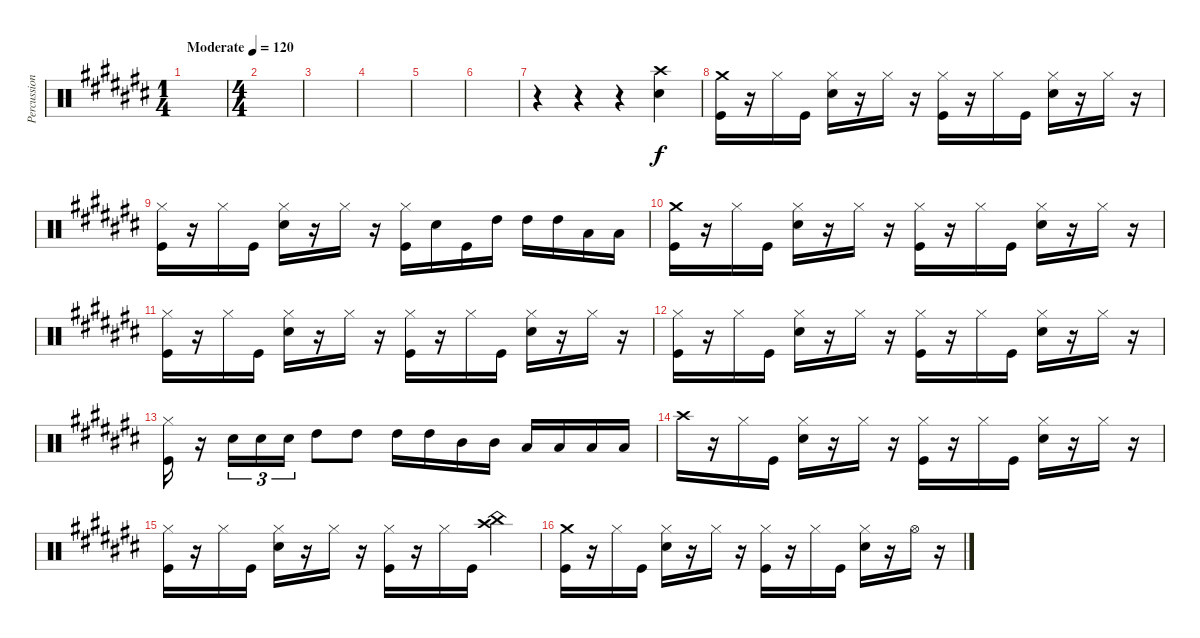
\track ("Percussion" "Percussion") {instrument percussion}
\staff {score}
\articulation defaults
\ts (1 4)
\tempo (120 "Moderate")
\clef neutral
\ks c#
|
\ts (4 4)
|
|
|
|
|
r.4 r.4 r.4 ("Crash high (hit)" "Electric Snare (hit)").4 |
("Crash medium (hit)" "Kick (hit)").16 r.16 "Hi-Hat (closed)".16 "Kick (hit)".16 ("Hi-Hat (closed)" "Snare (hit) 2").16 r.16 "Hi-Hat (closed)".16 r.16 ("Hi-Hat (closed)" "Kick (hit)").16 r.16 "Hi-Hat (closed)".16 "Kick (hit)".16 ("Hi-Hat (closed)" "Snare (hit) 2").16 r.16 "Hi-Hat (closed)".16 r.16 |
("Hi-Hat (closed)" "Kick (hit)").16 r.16 "Hi-Hat (closed)".16 "Kick (hit)".16 ("Hi-Hat (closed)" "Snare (hit) 2").16 r.16 "Hi-Hat (closed)".16 r.16 ("Hi-Hat (closed)" "Kick (hit)").16 "Snare (hit) 2".16 "Kick (hit)".16 "High Tom (hit)".16 "High Tom (hit)".16 "High Tom (hit)".16 "Low Tom (hit)".16 "Low Tom (hit)".16 |
("Crash medium (hit)" "Kick (hit)").16 r.16 "Hi-Hat (closed)".16 "Kick (hit)".16 ("Hi-Hat (closed)" "Snare (hit) 2").16 r.16 "Hi-Hat (closed)".16 r.16 ("Hi-Hat (closed)" "Kick (hit)").16 r.16 "Hi-Hat (closed)".16 "Kick (hit)".16 ("Hi-Hat (closed)" "Snare (hit) 2").16 r.16 "Hi-Hat (closed)".16 r.16 |
("Hi-Hat (closed)" "Kick (hit)").16 r.16 "Hi-Hat (closed)".16 "Kick (hit)".16 ("Hi-Hat (closed)" "Snare (hit) 2").16 r.16 "Hi-Hat (closed)".16 r.16 ("Hi-Hat (closed)" "Kick (hit)").16 r.16 "Hi-Hat (closed)".16 "Kick (hit)".16 ("Hi-Hat (closed)" "Snare (hit) 2").16 r.16 "Hi-Hat (closed)".16 r.16 |
("Hi-Hat (closed)" "Kick (hit)").16 r.16 "Hi-Hat (closed)".16 "Kick (hit)".16 ("Hi-Hat (closed)" "Snare (hit) 2").16 r.16 "Hi-Hat (closed)".16 r.16 ("Hi-Hat (closed)" "Kick (hit)").16 r.16 "Hi-Hat (closed)".16 "Kick (hit)".16 ("Hi-Hat (closed)" "Snare (hit) 2").16 r.16 "Hi-Hat (closed)".16 r.16 |
("Hi-Hat (closed)" "Kick (hit)").16 r.16 "Snare (hit) 2".16{tu (3 2)} "Snare (hit) 2".16{tu (3 2)} "Snare (hit) 2".16{tu (3 2)} "High Tom (hit)".8 "High Tom (hit)".8 "High Tom (hit)".16 "High Tom (hit)".16 "Mid Tom (hit)".16 "Mid Tom (hit)".16 "Low Tom (hit)".16 "Low Tom (hit)".16 "Low Floor Tom (hit)".16 "Low Floor Tom (hit)".16 |
"Crash high (hit)".16 r.16 "Hi-Hat (closed)".16 "Kick (hit)".16 ("Hi-Hat (closed)" "Snare (hit) 2").16 r.16 "Hi-Hat (closed)".16 r.16 ("Hi-Hat (closed)" "Kick (hit)").16 r.16 "Hi-Hat (closed)".16 "Kick (hit)".16 ("Hi-Hat (closed)" "Snare (hit) 2").16 r.16 "Hi-Hat (closed)".16 r.16 |
("Hi-Hat (closed)" "Kick (hit)").16 r.16 "Hi-Hat (closed)".16 "Kick (hit)".16 ("Hi-Hat (closed)" "Snare (hit) 2").16 r.16 "Hi-Hat (closed)".16 r.16 ("Hi-Hat (closed)" "Kick (hit)").16 r.16 "Hi-Hat (closed)".16 "Kick (hit)".16 ("Crash high (hit)" "China (hit)").4 |
("Crash medium (hit)" "Kick (hit)").16 r.16 "Hi-Hat (closed)".16 "Kick (hit)".16 ("Hi-Hat (closed)" "Snare (hit) 2").16 r.16 "Hi-Hat (closed)".16 r.16 ("Hi-Hat (closed)" "Kick (hit)").16 r.16 "Hi-Hat (closed)".16 "Kick (hit)".16 ("Hi-Hat (closed)" "Snare (hit) 2").16 r.16 "Hi-Hat (open)".16 r.16
